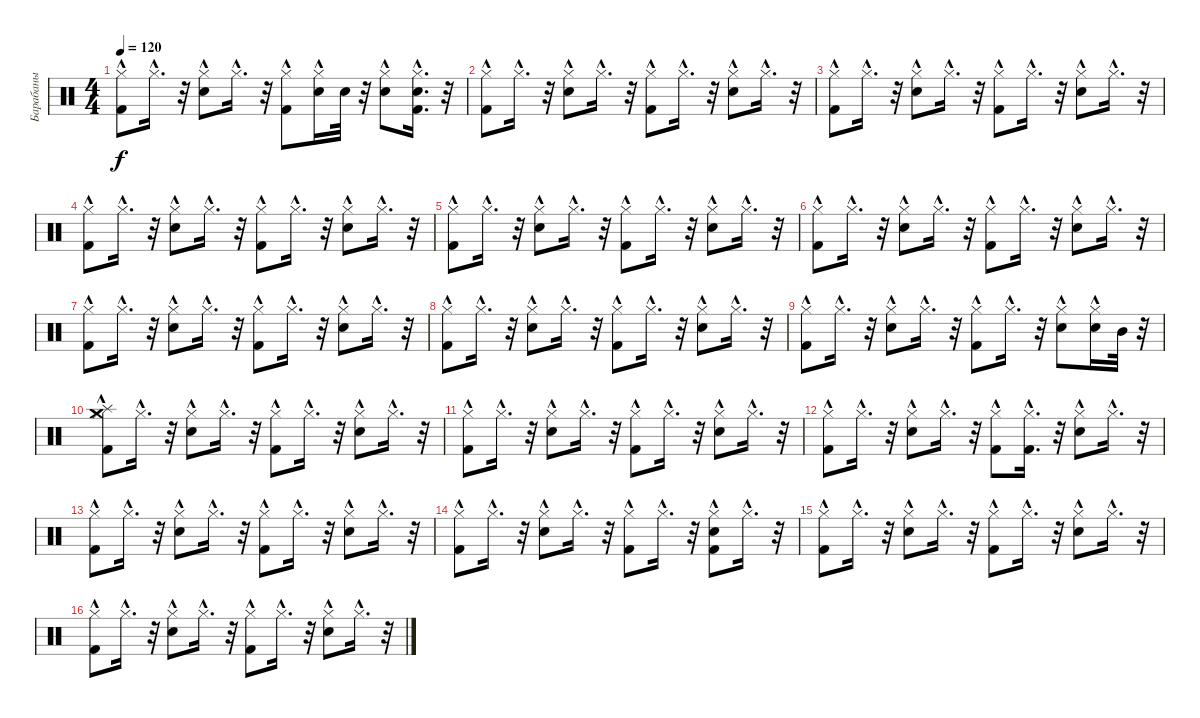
\track ("Барабаны" "Барабаны") {instrument percussion}
\staff {score}
\articulation defaults
\ts (4 4)
\tempo 120
\clef neutral
\ks c
("Kick (hit) 2" "Hi-Hat (closed)"{hac}).8{dy f} "Hi-Hat (closed)"{hac}.16{d} r.32 ("Electric Snare (hit)" "Hi-Hat (closed)"{hac}).8 "Hi-Hat (closed)"{hac}.16{d} r.32 ("Kick (hit) 2" "Hi-Hat (closed)"{hac}).8 ("Electric Snare (hit)" "Hi-Hat (closed)"{hac}).16 "Snare (hit) 2".32 r.32 ("Electric Snare (hit)" "Hi-Hat (closed)"{hac}).8 ("Electric Snare (hit)" "Kick (hit) 2" "Hi-Hat (closed)"{hac}).16{d} r.32 |
("Kick (hit) 2" "Hi-Hat (closed)"{hac}).8 "Hi-Hat (closed)"{hac}.16{d} r.32 ("Electric Snare (hit)" "Hi-Hat (closed)"{hac}).8 "Hi-Hat (closed)"{hac}.16{d} r.32 ("Kick (hit) 2" "Hi-Hat (closed)"{hac}).8 "Hi-Hat (closed)"{hac}.16{d} r.32 ("Electric Snare (hit)" "Hi-Hat (closed)"{hac}).8 "Hi-Hat (closed)"{hac}.16{d} r.32 |
("Kick (hit) 2" "Hi-Hat (closed)"{hac}).8 "Hi-Hat (closed)"{hac}.16{d} r.32 ("Electric Snare (hit)" "Hi-Hat (closed)"{hac}).8 "Hi-Hat (closed)"{hac}.16{d} r.32 ("Kick (hit) 2" "Hi-Hat (closed)"{hac}).8 "Hi-Hat (closed)"{hac}.16{d} r.32 ("Electric Snare (hit)" "Hi-Hat (closed)"{hac}).8 "Hi-Hat (closed)"{hac}.16{d} r.32 |
("Kick (hit) 2" "Hi-Hat (closed)"{hac}).8 "Hi-Hat (closed)"{hac}.16{d} r.32 ("Electric Snare (hit)" "Hi-Hat (closed)"{hac}).8 "Hi-Hat (closed)"{hac}.16{d} r.32 ("Kick (hit) 2" "Hi-Hat (closed)"{hac}).8 "Hi-Hat (closed)"{hac}.16{d} r.32 ("Electric Snare (hit)" "Hi-Hat (closed)"{hac}).8 "Hi-Hat (closed)"{hac}.16{d} r.32 |
("Kick (hit) 2" "Hi-Hat (closed)"{hac}).8 "Hi-Hat (closed)"{hac}.16{d} r.32 ("Electric Snare (hit)" "Hi-Hat (closed)"{hac}).8 "Hi-Hat (closed)"{hac}.16{d} r.32 ("Kick (hit) 2" "Hi-Hat (closed)"{hac}).8 "Hi-Hat (closed)"{hac}.16{d} r.32 ("Electric Snare (hit)" "Hi-Hat (closed)"{hac}).8 "Hi-Hat (closed)"{hac}.16{d} r.32 |
("Kick (hit) 2" "Hi-Hat (closed)"{hac}).8 "Hi-Hat (closed)"{hac}.16{d} r.32 ("Electric Snare (hit)" "Hi-Hat (closed)"{hac}).8 "Hi-Hat (closed)"{hac}.16{d} r.32 ("Kick (hit) 2" "Hi-Hat (closed)"{hac}).8 "Hi-Hat (closed)"{hac}.16{d} r.32 ("Electric Snare (hit)" "Hi-Hat (closed)"{hac}).8 "Hi-Hat (closed)"{hac}.16{d} r.32 |
("Kick (hit) 2" "Hi-Hat (closed)"{hac}).8 "Hi-Hat (closed)"{hac}.16{d} r.32 ("Electric Snare (hit)" "Hi-Hat (closed)"{hac}).8 "Hi-Hat (closed)"{hac}.16{d} r.32 ("Kick (hit) 2" "Hi-Hat (closed)"{hac}).8 "Hi-Hat (closed)"{hac}.16{d} r.32 ("Electric Snare (hit)" "Hi-Hat (closed)"{hac}).8 "Hi-Hat (closed)"{hac}.16{d} r.32 |
("Kick (hit) 2" "Hi-Hat (closed)"{hac}).8 "Hi-Hat (closed)"{hac}.16{d} r.32 ("Electric Snare (hit)" "Hi-Hat (closed)"{hac}).8 "Hi-Hat (closed)"{hac}.16{d} r.32 ("Kick (hit) 2" "Hi-Hat (closed)"{hac}).8 "Hi-Hat (closed)"{hac}.16{d} r.32 ("Electric Snare (hit)" "Hi-Hat (closed)"{hac}).8 "Hi-Hat (closed)"{hac}.16{d} r.32 |
("Kick (hit) 2" "Hi-Hat (closed)"{hac}).8 "Hi-Hat (closed)"{hac}.16{d} r.32 ("Electric Snare (hit)" "Hi-Hat (closed)"{hac}).8 "Hi-Hat (closed)"{hac}.16{d} r.32 ("Kick (hit) 2" "Hi-Hat (closed)"{hac}).8 "Hi-Hat (closed)"{hac}.16{d} r.32 ("Electric Snare (hit)" "Hi-Hat (closed)"{hac}).8 ("Electric Snare (hit)" "Hi-Hat (closed)"{hac}).16 "Mid Tom (hit)".32 r.32 |
("Splash (hit)" "Crash medium (hit)" "Kick (hit) 2" "Hi-Hat (closed)"{hac}).8 "Hi-Hat (closed)"{hac}.16{d} r.32 ("Electric Snare (hit)" "Hi-Hat (closed)"{hac}).8 "Hi-Hat (closed)"{hac}.16{d} r.32 ("Kick (hit) 2" "Hi-Hat (closed)"{hac}).8 "Hi-Hat (closed)"{hac}.16{d} r.32 ("Electric Snare (hit)" "Hi-Hat (closed)"{hac}).8 "Hi-Hat (closed)"{hac}.16{d} r.32 |
("Kick (hit) 2" "Hi-Hat (closed)"{hac}).8 "Hi-Hat (closed)"{hac}.16{d} r.32 ("Electric Snare (hit)" "Hi-Hat (closed)"{hac}).8 "Hi-Hat (closed)"{hac}.16{d} r.32 ("Kick (hit) 2" "Hi-Hat (closed)"{hac}).8 "Hi-Hat (closed)"{hac}.16{d} r.32 ("Electric Snare (hit)" "Hi-Hat (closed)"{hac}).8 "Hi-Hat (closed)"{hac}.16{d} r.32 |
("Kick (hit) 2" "Hi-Hat (closed)"{hac}).8 "Hi-Hat (closed)"{hac}.16{d} r.32 ("Electric Snare (hit)" "Hi-Hat (closed)"{hac}).8 "Hi-Hat (closed)"{hac}.16{d} r.32 ("Kick (hit) 2" "Hi-Hat (closed)"{hac}).8 ("Kick (hit) 2"{hac} "Hi-Hat (closed)"{hac}).16{d} r.32 ("Electric Snare (hit)" "Hi-Hat (closed)"{hac}).8 "Hi-Hat (closed)"{hac}.16{d} r.32 |
("Kick (hit) 2" "Hi-Hat (closed)"{hac}).8 "Hi-Hat (closed)"{hac}.16{d} r.32 ("Electric Snare (hit)" "Hi-Hat (closed)"{hac}).8 "Hi-Hat (closed)"{hac}.16{d} r.32 ("Kick (hit) 2" "Hi-Hat (closed)"{hac}).8 "Hi-Hat (closed)"{hac}.16{d} r.32 ("Electric Snare (hit)" "Hi-Hat (closed)"{hac}).8 "Hi-Hat (closed)"{hac}.16{d} r.32 |
("Kick (hit) 2" "Hi-Hat (closed)"{hac}).8 "Hi-Hat (closed)"{hac}.16{d} r.32 ("Electric Snare (hit)" "Hi-Hat (closed)"{hac}).8 "Hi-Hat (closed)"{hac}.16{d} r.32 ("Kick (hit) 2" "Hi-Hat (closed)"{hac}).8 "Hi-Hat (closed)"{hac}.16{d} r.32 ("Kick (hit) 2"{hac} "Electric Snare (hit)" "Hi-Hat (closed)"{hac}).8 "Hi-Hat (closed)"{hac}.16{d} r.32 |
("Kick (hit) 2" "Hi-Hat (closed)"{hac}).8 "Hi-Hat (closed)"{hac}.16{d} r.32 ("Electric Snare (hit)" "Hi-Hat (closed)"{hac}).8 "Hi-Hat (closed)"{hac}.16{d} r.32 ("Kick (hit) 2" "Hi-Hat (closed)"{hac}).8 "Hi-Hat (closed)"{hac}.16{d} r.32 ("Electric Snare (hit)" "Hi-Hat (closed)"{hac}).8 "Hi-Hat (closed)"{hac}.16{d} r.32 |
("Kick (hit) 2" "Hi-Hat (closed)"{hac}).8 "Hi-Hat (closed)"{hac}.16{d} r.32 ("Electric Snare (hit)" "Hi-Hat (closed)"{hac}).8 "Hi-Hat (closed)"{hac}.16{d} r.32 ("Kick (hit) 2" "Hi-Hat (closed)"{hac}).8 "Hi-Hat (closed)"{hac}.16{d} r.32 ("Electric Snare (hit)" "Hi-Hat (closed)"{hac}).8 "Hi-Hat (closed)"{hac}.16{d} r.32
